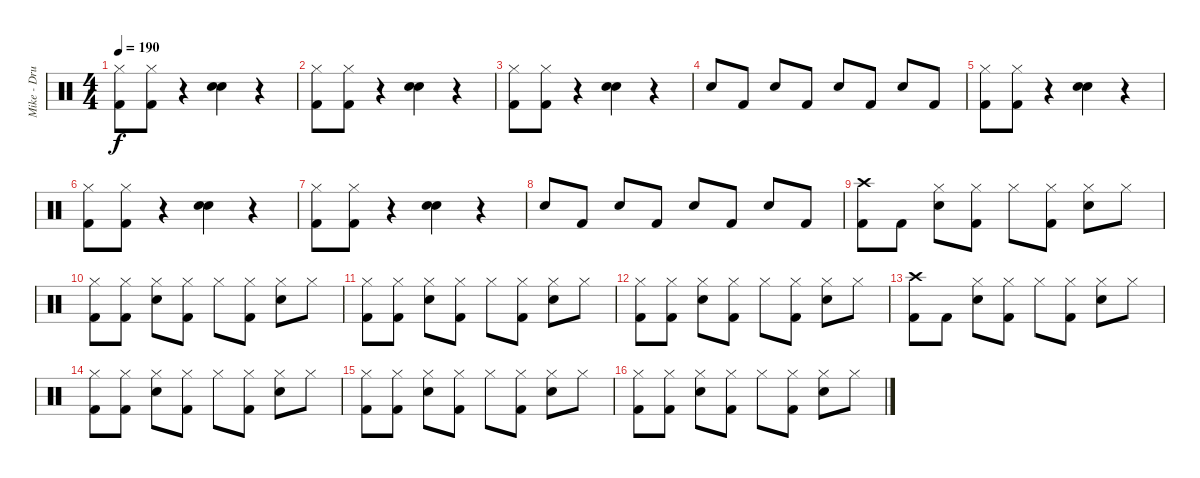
\track ("Mike - Drums" "Mike - Dru") {instrument percussion}
\staff {score}
\articulation defaults
\ts (4 4)
\tempo 190
\clef neutral
\ks c
("Hi-Hat (closed)" "Kick (hit) 2").8{dy f} ("Hi-Hat (closed)" "Kick (hit) 2").8 r.4 ("Snare (hit) 2" "Snare (hit) 2").4 r.4 |
("Hi-Hat (closed)" "Kick (hit) 2").8 ("Hi-Hat (closed)" "Kick (hit) 2").8 r.4 ("Snare (hit) 2" "Snare (hit) 2").4 r.4 |
("Hi-Hat (closed)" "Kick (hit) 2").8 ("Hi-Hat (closed)" "Kick (hit) 2").8 r.4 ("Snare (hit) 2" "Snare (hit) 2").4 r.4 |
"Snare (hit) 2".8 "Kick (hit) 2".8 "Snare (hit) 2".8 "Kick (hit) 2".8 "Snare (hit) 2".8 "Kick (hit) 2".8 "Snare (hit) 2".8 "Kick (hit) 2".8 |
("Hi-Hat (closed)" "Kick (hit) 2").8 ("Hi-Hat (closed)" "Kick (hit) 2").8 r.4 ("Snare (hit) 2" "Snare (hit) 2").4 r.4 |
("Hi-Hat (closed)" "Kick (hit) 2").8 ("Hi-Hat (closed)" "Kick (hit) 2").8 r.4 ("Snare (hit) 2" "Snare (hit) 2").4 r.4 |
("Hi-Hat (closed)" "Kick (hit) 2").8 ("Hi-Hat (closed)" "Kick (hit) 2").8 r.4 ("Snare (hit) 2" "Snare (hit) 2").4 r.4 |
"Snare (hit) 2".8 "Kick (hit) 2".8 "Snare (hit) 2".8 "Kick (hit) 2".8 "Snare (hit) 2".8 "Kick (hit) 2".8 "Snare (hit) 2".8 "Kick (hit) 2".8 |
("Crash high (hit)" "Kick (hit) 2").8 "Kick (hit) 2".8 ("Hi-Hat (closed)" "Snare (hit) 2").8 ("Hi-Hat (closed)" "Kick (hit) 2").8 "Hi-Hat (closed)".8 ("Hi-Hat (closed)" "Kick (hit) 2").8 ("Hi-Hat (closed)" "Snare (hit) 2").8 "Hi-Hat (closed)".8 |
("Hi-Hat (closed)" "Kick (hit) 2").8 ("Hi-Hat (closed)" "Kick (hit) 2").8 ("Hi-Hat (closed)" "Snare (hit) 2").8 ("Hi-Hat (closed)" "Kick (hit) 2").8 "Hi-Hat (closed)".8 ("Hi-Hat (closed)" "Kick (hit) 2").8 ("Hi-Hat (closed)" "Snare (hit) 2").8 "Hi-Hat (closed)".8 |
("Hi-Hat (closed)" "Kick (hit) 2").8 ("Hi-Hat (closed)" "Kick (hit) 2").8 ("Hi-Hat (closed)" "Snare (hit) 2").8 ("Hi-Hat (closed)" "Kick (hit) 2").8 "Hi-Hat (closed)".8 ("Hi-Hat (closed)" "Kick (hit) 2").8 ("Hi-Hat (closed)" "Snare (hit) 2").8 "Hi-Hat (closed)".8 |
("Hi-Hat (closed)" "Kick (hit) 2").8 ("Hi-Hat (closed)" "Kick (hit) 2").8 ("Hi-Hat (closed)" "Snare (hit) 2").8 ("Hi-Hat (closed)" "Kick (hit) 2").8 "Hi-Hat (closed)".8 ("Hi-Hat (closed)" "Kick (hit) 2").8 ("Hi-Hat (closed)" "Snare (hit) 2").8 "Hi-Hat (closed)".8 |
("Crash high (hit)" "Kick (hit) 2").8 "Kick (hit) 2".8 ("Hi-Hat (closed)" "Snare (hit) 2").8 ("Hi-Hat (closed)" "Kick (hit) 2").8 "Hi-Hat (closed)".8 ("Hi-Hat (closed)" "Kick (hit) 2").8 ("Hi-Hat (closed)" "Snare (hit) 2").8 "Hi-Hat (closed)".8 |
("Hi-Hat (closed)" "Kick (hit) 2").8 ("Hi-Hat (closed)" "Kick (hit) 2").8 ("Hi-Hat (closed)" "Snare (hit) 2").8 ("Hi-Hat (closed)" "Kick (hit) 2").8 "Hi-Hat (closed)".8 ("Hi-Hat (closed)" "Kick (hit) 2").8 ("Hi-Hat (closed)" "Snare (hit) 2").8 "Hi-Hat (closed)".8 |
("Hi-Hat (closed)" "Kick (hit) 2").8 ("Hi-Hat (closed)" "Kick (hit) 2").8 ("Hi-Hat (closed)" "Snare (hit) 2").8 ("Hi-Hat (closed)" "Kick (hit) 2").8 "Hi-Hat (closed)".8 ("Hi-Hat (closed)" "Kick (hit) 2").8 ("Hi-Hat (closed)" "Snare (hit) 2").8 "Hi-Hat (closed)".8 |
("Hi-Hat (closed)" "Kick (hit) 2").8 ("Hi-Hat (closed)" "Kick (hit) 2").8 ("Hi-Hat (closed)" "Snare (hit) 2").8 ("Hi-Hat (closed)" "Kick (hit) 2").8 "Hi-Hat (closed)".8 ("Hi-Hat (closed)" "Kick (hit) 2").8 ("Hi-Hat (closed)" "Snare (hit) 2").8 "Hi-Hat (closed)".8
